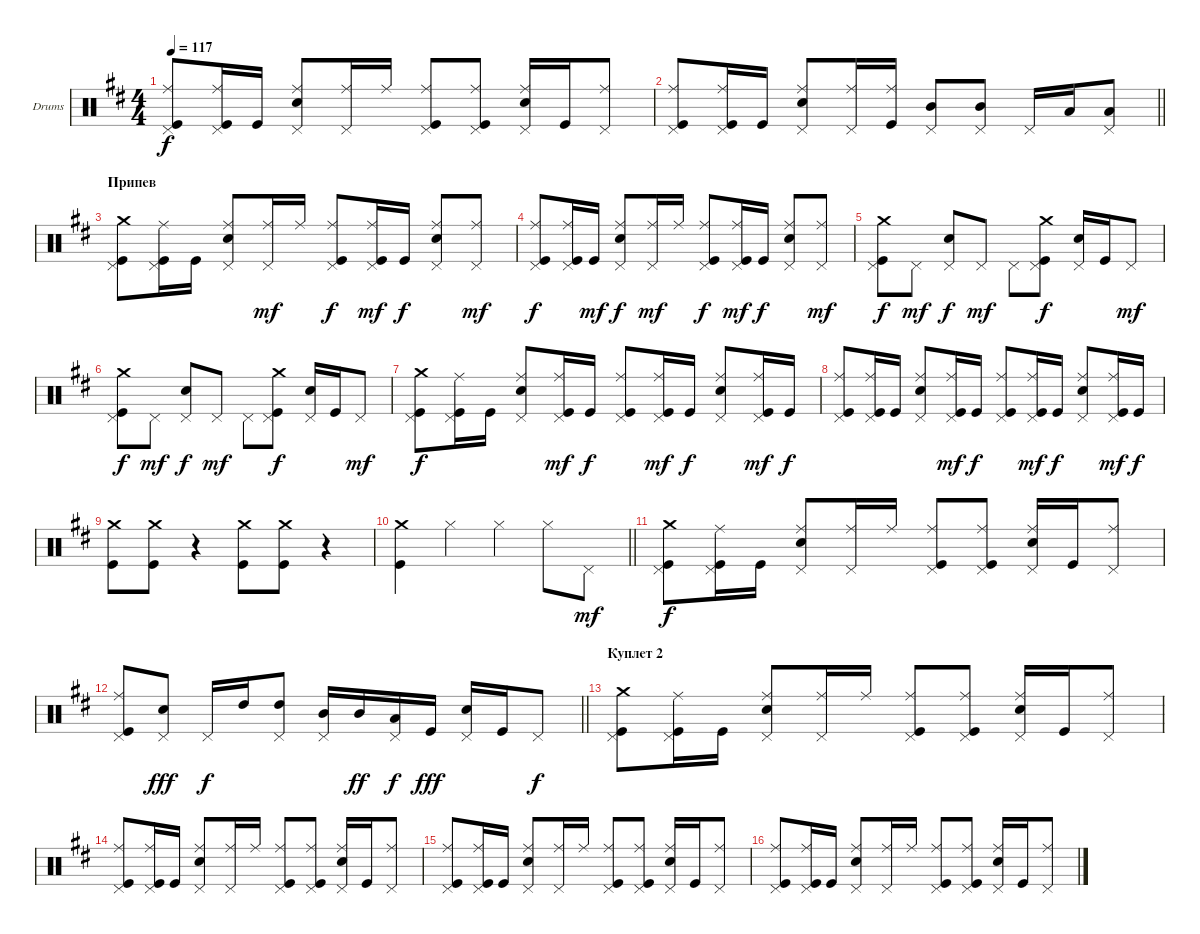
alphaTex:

\bracketExtendMode groupsimilarinstruments
\firstSystemTrackNameOrientation horizontal
\otherSystemsTrackNameOrientation horizontal
\track ("Барабаны" "Drums") {instrument percussion}
\staff {score}
\articulation defaults
\ts (4 4)
\tempo 117
\clef neutral
\ks d
("Kick (hit)" "Ride (middle)" "Pedal Hi-Hat (hit)").8{dy f} ("Kick (hit)" "Ride (middle)" "Pedal Hi-Hat (hit)").16 "Kick (hit)".16 ("Snare (hit) 2" "Ride (middle)" "Pedal Hi-Hat (hit)").8 ("Ride (middle)" "Pedal Hi-Hat (hit)").16 "Ride (middle)".16 ("Kick (hit)" "Ride (middle)" "Pedal Hi-Hat (hit)").8 ("Ride (middle)" "Kick (hit)" "Pedal Hi-Hat (hit)").8 ("Snare (hit) 2" "Ride (middle)" "Pedal Hi-Hat (hit)").16 "Kick (hit)".16 ("Ride (middle)" "Pedal Hi-Hat (hit)").8 |
\barLineRight lightlight
("Kick (hit)" "Ride (middle)" "Pedal Hi-Hat (hit)").8 ("Kick (hit)" "Ride (middle)" "Pedal Hi-Hat (hit)").16 "Kick (hit)".16 ("Snare (hit) 2" "Ride (middle)" "Pedal Hi-Hat (hit)").8 ("Ride (middle)" "Pedal Hi-Hat (hit)").16 ("Ride (middle)" "Kick (hit)").16 ("Mid Tom (hit)" "Pedal Hi-Hat (hit)").8 ("Mid Tom (hit)" "Pedal Hi-Hat (hit)").8 "Pedal Hi-Hat (hit)".16 "Low Tom (hit)".16 ("Pedal Hi-Hat (hit)" "Low Tom (hit)").8 |
\section ("" "Припев")
("Kick (hit)" "Crash medium (hit)" "Pedal Hi-Hat (hit)").8 ("Kick (hit)" "Ride (middle)" "Pedal Hi-Hat (hit)").16 "Kick (hit)".16 ("Snare (hit) 2" "Ride (middle)" "Pedal Hi-Hat (hit)").8 ("Ride (middle)" "Pedal Hi-Hat (hit)").16{dy mf} "Ride (middle)".16 ("Kick (hit)" "Ride (middle)" "Pedal Hi-Hat (hit)").8{dy f} ("Ride (middle)" "Kick (hit)" "Pedal Hi-Hat (hit)").16{dy mf} "Kick (hit)".16{dy f} ("Snare (hit) 2" "Ride (middle)" "Pedal Hi-Hat (hit)").8 ("Ride (middle)" "Pedal Hi-Hat (hit)").8{dy mf} |
("Kick (hit)" "Ride (middle)" "Pedal Hi-Hat (hit)").8{dy f} ("Kick (hit)" "Ride (middle)" "Pedal Hi-Hat (hit)").16 "Kick (hit)".16{dy mf} ("Snare (hit) 2" "Ride (middle)" "Pedal Hi-Hat (hit)").8{dy f} ("Ride (middle)" "Pedal Hi-Hat (hit)").16{dy mf} "Ride (middle)".16 ("Kick (hit)" "Ride (middle)" "Pedal Hi-Hat (hit)").8{dy f} ("Ride (middle)" "Kick (hit)" "Pedal Hi-Hat (hit)").16{dy mf} "Kick (hit)".16{dy f} ("Snare (hit) 2" "Ride (middle)" "Pedal Hi-Hat (hit)").8 ("Ride (middle)" "Pedal Hi-Hat (hit)").8{dy mf} |
("Kick (hit)" "Crash medium (hit)" "Pedal Hi-Hat (hit)").8{dy f} "Pedal Hi-Hat (hit)".8{dy mf} ("Snare (hit) 2" "Pedal Hi-Hat (hit)").8{dy f} "Pedal Hi-Hat (hit)".8{dy mf} "Pedal Hi-Hat (hit)".8 ("Kick (hit)" "Crash medium (hit)" "Pedal Hi-Hat (hit)").8{dy f} ("Snare (hit) 2" "Pedal Hi-Hat (hit)").16 "Kick (hit)".16 "Pedal Hi-Hat (hit)".8{dy mf} |
("Kick (hit)" "Crash medium (hit)" "Pedal Hi-Hat (hit)").8{dy f} "Pedal Hi-Hat (hit)".8{dy mf} ("Snare (hit) 2" "Pedal Hi-Hat (hit)").8{dy f} "Pedal Hi-Hat (hit)".8{dy mf} "Pedal Hi-Hat (hit)".8 ("Kick (hit)" "Crash medium (hit)" "Pedal Hi-Hat (hit)").8{dy f} ("Snare (hit) 2" "Pedal Hi-Hat (hit)").16 "Kick (hit)".16 "Pedal Hi-Hat (hit)".8{dy mf} |
("Kick (hit)" "Crash medium (hit)" "Pedal Hi-Hat (hit)").8{dy f} ("Kick (hit)" "Ride (middle)" "Pedal Hi-Hat (hit)").16 "Kick (hit)".16 ("Snare (hit) 2" "Ride (middle)" "Pedal Hi-Hat (hit)").8 ("Ride (middle)" "Kick (hit)" "Pedal Hi-Hat (hit)").16{dy mf} "Kick (hit)".16{dy f} ("Kick (hit)" "Ride (middle)" "Pedal Hi-Hat (hit)").8 ("Ride (middle)" "Kick (hit)" "Pedal Hi-Hat (hit)").16{dy mf} "Kick (hit)".16{dy f} ("Snare (hit) 2" "Ride (middle)" "Pedal Hi-Hat (hit)").8 ("Ride (middle)" "Kick (hit)" "Pedal Hi-Hat (hit)").16{dy mf} "Kick (hit)".16{dy f} |
("Kick (hit)" "Ride (middle)" "Pedal Hi-Hat (hit)").8 ("Kick (hit)" "Ride (middle)" "Pedal Hi-Hat (hit)").16 "Kick (hit)".16 ("Snare (hit) 2" "Ride (middle)" "Pedal Hi-Hat (hit)").8 ("Ride (middle)" "Kick (hit)" "Pedal Hi-Hat (hit)").16{dy mf} "Kick (hit)".16{dy f} ("Kick (hit)" "Ride (middle)" "Pedal Hi-Hat (hit)").8 ("Ride (middle)" "Kick (hit)" "Pedal Hi-Hat (hit)").16{dy mf} "Kick (hit)".16{dy f} ("Snare (hit) 2" "Ride (middle)" "Pedal Hi-Hat (hit)").8 ("Ride (middle)" "Kick (hit)" "Pedal Hi-Hat (hit)").16{dy mf} "Kick (hit)".16{dy f} |
("Kick (hit)" "Crash medium (hit)").8 ("Kick (hit)" "Crash medium (hit)").8 r.4 ("Kick (hit)" "Crash medium (hit)").8 ("Kick (hit)" "Crash medium (hit)").8 r.4 |
\barLineRight lightlight
("Kick (hit)" "Crash medium (hit)").4 "Hi-Hat (closed)".4 "Hi-Hat (closed)".4 "Hi-Hat (closed)".8 "Pedal Hi-Hat (hit)".8{dy mf} |
("Kick (hit)" "Crash medium (hit)" "Pedal Hi-Hat (hit)").8{dy f} ("Kick (hit)" "Ride (middle)" "Pedal Hi-Hat (hit)").16 "Kick (hit)".16 ("Snare (hit) 2" "Ride (middle)" "Pedal Hi-Hat (hit)").8 ("Ride (middle)" "Pedal Hi-Hat (hit)").16 "Ride (middle)".16 ("Kick (hit)" "Ride (middle)" "Pedal Hi-Hat (hit)").8 ("Ride (middle)" "Kick (hit)" "Pedal Hi-Hat (hit)").8 ("Snare (hit) 2" "Ride (middle)" "Pedal Hi-Hat (hit)").16 "Kick (hit)".16 ("Ride (middle)" "Pedal Hi-Hat (hit)").8 |
\barLineRight lightlight
("Kick (hit)" "Pedal Hi-Hat (hit)" "Ride (middle)").8 ("Snare (hit) 2" "Pedal Hi-Hat (hit)").8{dy fff} "Pedal Hi-Hat (hit)".16{dy f} "High Tom (hit)".16 ("Pedal Hi-Hat (hit)" "High Tom (hit)").8 ("Pedal Hi-Hat (hit)" "Mid Tom (hit)").16 "Mid Tom (hit)".16{dy ff} ("Pedal Hi-Hat (hit)" "Low Tom (hit)").16{dy f} "Kick (hit)".16{dy fff} ("Snare (hit) 2" "Pedal Hi-Hat (hit)").16 "Kick (hit)".16 "Pedal Hi-Hat (hit)".8{dy f} |
\section ("" "Куплет 2")
("Kick (hit)" "Crash medium (hit)" "Pedal Hi-Hat (hit)").8 ("Kick (hit)" "Ride (middle)" "Pedal Hi-Hat (hit)").16 "Kick (hit)".16 ("Snare (hit) 2" "Ride (middle)" "Pedal Hi-Hat (hit)").8 ("Ride (middle)" "Pedal Hi-Hat (hit)").16 "Ride (middle)".16 ("Kick (hit)" "Ride (middle)" "Pedal Hi-Hat (hit)").8 ("Ride (middle)" "Kick (hit)" "Pedal Hi-Hat (hit)").8 ("Snare (hit) 2" "Ride (middle)" "Pedal Hi-Hat (hit)").16 "Kick (hit)".16 ("Ride (middle)" "Pedal Hi-Hat (hit)").8 |
("Kick (hit)" "Ride (middle)" "Pedal Hi-Hat (hit)").8 ("Kick (hit)" "Ride (middle)" "Pedal Hi-Hat (hit)").16 "Kick (hit)".16 ("Snare (hit) 2" "Ride (middle)" "Pedal Hi-Hat (hit)").8 ("Ride (middle)" "Pedal Hi-Hat (hit)").16 "Ride (middle)".16 ("Kick (hit)" "Ride (middle)" "Pedal Hi-Hat (hit)").8 ("Ride (middle)" "Kick (hit)" "Pedal Hi-Hat (hit)").8 ("Snare (hit) 2" "Ride (middle)" "Pedal Hi-Hat (hit)").16 "Kick (hit)".16 ("Ride (middle)" "Pedal Hi-Hat (hit)").8 |
("Kick (hit)" "Ride (middle)" "Pedal Hi-Hat (hit)").8 ("Kick (hit)" "Ride (middle)" "Pedal Hi-Hat (hit)").16 "Kick (hit)".16 ("Snare (hit) 2" "Ride (middle)" "Pedal Hi-Hat (hit)").8 ("Ride (middle)" "Pedal Hi-Hat (hit)").16 "Ride (middle)".16 ("Kick (hit)" "Ride (middle)" "Pedal Hi-Hat (hit)").8 ("Ride (middle)" "Kick (hit)" "Pedal Hi-Hat (hit)").8 ("Snare (hit) 2" "Ride (middle)" "Pedal Hi-Hat (hit)").16 "Kick (hit)".16 ("Ride (middle)" "Pedal Hi-Hat (hit)").8 |
("Kick (hit)" "Ride (middle)" "Pedal Hi-Hat (hit)").8 ("Kick (hit)" "Ride (middle)" "Pedal Hi-Hat (hit)").16 "Kick (hit)".16 ("Snare (hit) 2" "Ride (middle)" "Pedal Hi-Hat (hit)").8 ("Ride (middle)" "Pedal Hi-Hat (hit)").16 "Ride (middle)".16 ("Kick (hit)" "Ride (middle)" "Pedal Hi-Hat (hit)").8 ("Ride (middle)" "Kick (hit)" "Pedal Hi-Hat (hit)").8 ("Snare (hit) 2" "Ride (middle)" "Pedal Hi-Hat (hit)").16 "Kick (hit)".16 ("Ride (middle)" "Pedal Hi-Hat (hit)").8
